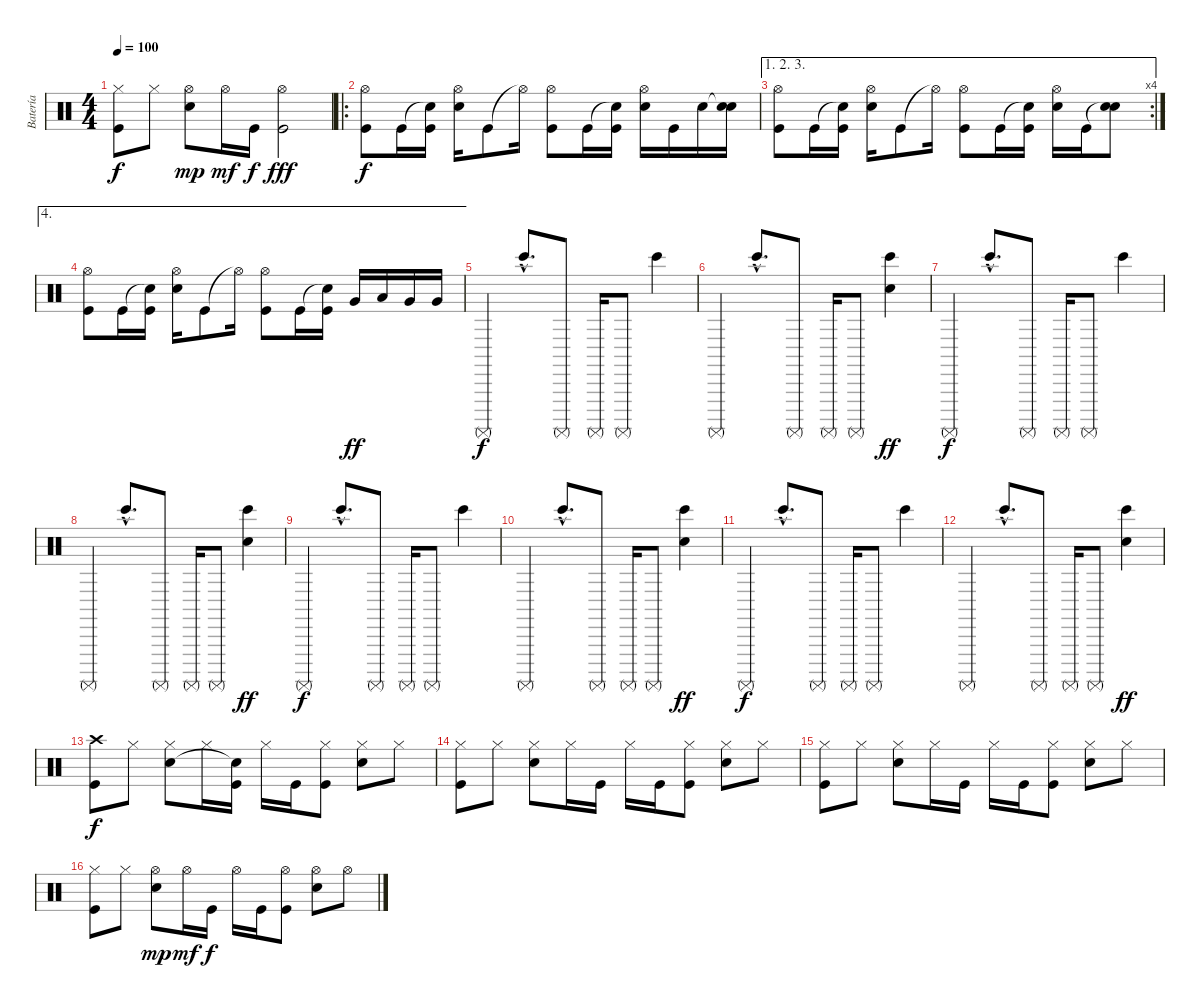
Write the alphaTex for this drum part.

\track ("Batería" "Batería") {instrument percussion}
\staff {score}
\articulation defaults
\ts (4 4)
\tempo 100
\clef neutral
\ks c
("Hi-Hat (closed)" "Kick (hit)").8{dy f} "Hi-Hat (closed)".8 ("Hi-Hat (open)" "Snare (hit) 2").8{dy mp} "Hi-Hat (open)".16{dy mf} "Kick (hit)".16{dy f} ("Hi-Hat (open)" "Kick (hit)").2{dy fff} |
\ro
("Hi-Hat (open)" "Kick (hit)").8{dy f} "Kick (hit)".16 ("Snare (hit)"{t} "Kick (hit)").16 ("Hi-Hat (open)" "Snare (hit) 2").16 "Kick (hit)".8 "Hi-Hat (open)"{t}.16 ("Hi-Hat (open)" "Kick (hit)").8 "Kick (hit)".16 ("Snare (hit)"{t} "Kick (hit)").16 ("Hi-Hat (open)" "Snare (hit) 2").16 "Kick (hit)".16 "Snare (hit) 2".16 ("Snare (hit)"{t} "Snare (hit) 2").16 |
\ae (1 2 3)
\rc 4
("Hi-Hat (open)" "Kick (hit)").8 "Kick (hit)".16 ("Snare (hit)"{t} "Kick (hit)").16 ("Hi-Hat (open)" "Snare (hit) 2").16 "Kick (hit)".8 "Hi-Hat (open)"{t}.16 ("Hi-Hat (open)" "Kick (hit)").8 "Kick (hit)".16 ("Snare (hit)"{t} "Kick (hit)").16 ("Hi-Hat (open)" "Snare (hit) 2").16 "Kick (hit)".16 ("Snare (hit)"{t} "Snare (hit) 2").8 |
\ae 4
("Hi-Hat (open)" "Kick (hit)").8 "Kick (hit)".16 ("Snare (hit)"{t} "Kick (hit)").16 ("Hi-Hat (open)" "Snare (hit) 2").16 "Kick (hit)".8 "Hi-Hat (open)"{t}.16 ("Hi-Hat (open)" "Kick (hit)").8 "Kick (hit)".16 ("Snare (hit)"{t} "Kick (hit)").16 "Very Low Tom (hit)".16{dy ff} "Low Tom (hit)".16 "Very Low Tom (hit)".16 "Very Low Tom (hit)".16 |
"Surdo (mute)".4{dy f} "Bongo High (hit)"{hac}.8{d} "Surdo (mute)".8 "Surdo (mute)".16 "Surdo (mute)".8 "Bongo High (hit)".4 |
"Surdo (mute)".4 "Bongo High (hit)"{hac}.8{d} "Surdo (mute)".8 "Surdo (mute)".16 "Surdo (mute)".8 ("Metronome (bell)" "Bongo High (hit)").4{dy ff} |
"Surdo (mute)".4{dy f} "Bongo High (hit)"{hac}.8{d} "Surdo (mute)".8 "Surdo (mute)".16 "Surdo (mute)".8 "Bongo High (hit)".4 |
"Surdo (mute)".4 "Bongo High (hit)"{hac}.8{d} "Surdo (mute)".8 "Surdo (mute)".16 "Surdo (mute)".8 ("Metronome (bell)" "Bongo High (hit)").4{dy ff} |
"Surdo (mute)".4{dy f} "Bongo High (hit)"{hac}.8{d} "Surdo (mute)".8 "Surdo (mute)".16 "Surdo (mute)".8 "Bongo High (hit)".4 |
"Surdo (mute)".4 "Bongo High (hit)"{hac}.8{d} "Surdo (mute)".8 "Surdo (mute)".16 "Surdo (mute)".8 ("Metronome (bell)" "Bongo High (hit)").4{dy ff} |
"Surdo (mute)".4{dy f} "Bongo High (hit)"{hac}.8{d} "Surdo (mute)".8 "Surdo (mute)".16 "Surdo (mute)".8 "Bongo High (hit)".4 |
"Surdo (mute)".4 "Bongo High (hit)"{hac}.8{d} "Surdo (mute)".8 "Surdo (mute)".16 "Surdo (mute)".8 ("Metronome (bell)" "Bongo High (hit)").4{dy ff} |
("Kick (hit)" "Crash high (hit)").8{dy f} "Hi-Hat (closed)".8 ("Hi-Hat (closed)" "Snare (hit) 2").8 "Hi-Hat (closed)".16 ("Kick (hit)" "Snare (hit)"{t}).16 "Hi-Hat (closed)".16 "Kick (hit)".16 ("Hi-Hat (closed)" "Kick (hit)").8 ("Hi-Hat (closed)" "Snare (hit) 2").8 "Hi-Hat (closed)".8 |
("Hi-Hat (closed)" "Kick (hit)").8 "Hi-Hat (closed)".8 ("Hi-Hat (closed)" "Snare (hit) 2").8 "Hi-Hat (closed)".16 "Kick (hit)".16 "Hi-Hat (closed)".16 "Kick (hit)".16 ("Hi-Hat (closed)" "Kick (hit)").8 ("Hi-Hat (closed)" "Snare (hit) 2").8 "Hi-Hat (closed)".8 |
("Hi-Hat (closed)" "Kick (hit)").8 "Hi-Hat (closed)".8 ("Hi-Hat (closed)" "Snare (hit) 2").8 "Hi-Hat (closed)".16 "Kick (hit)".16 "Hi-Hat (closed)".16 "Kick (hit)".16 ("Hi-Hat (closed)" "Kick (hit)").8 ("Hi-Hat (closed)" "Snare (hit) 2").8 "Hi-Hat (closed)".8 |
("Hi-Hat (closed)" "Kick (hit)").8 "Hi-Hat (closed)".8 ("Hi-Hat (open)" "Snare (hit) 2").8{dy mp} "Hi-Hat (open)".16{dy mf} "Kick (hit)".16{dy f} "Hi-Hat (open)".16 "Kick (hit)".16 ("Hi-Hat (open)" "Kick (hit)").8 ("Hi-Hat (open)" "Snare (hit) 2").8 "Hi-Hat (open)".8
